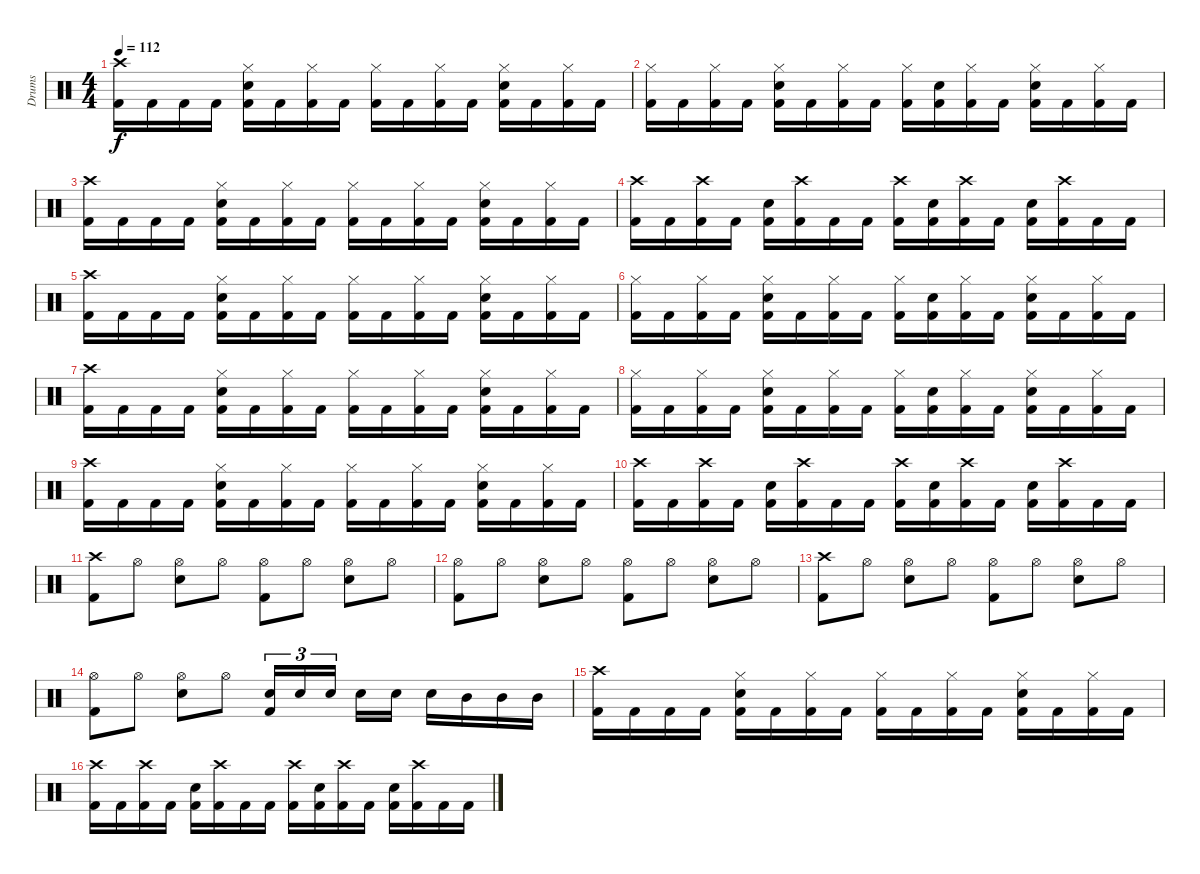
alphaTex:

\track ("Drums" "Drums") {instrument percussion}
\staff {score}
\articulation defaults
\ts (4 4)
\tempo 112
\clef neutral
\ks c
("Crash high (hit)" "Kick (hit) 2").16{dy f} "Kick (hit) 2".16 "Kick (hit) 2".16 "Kick (hit) 2".16 ("Hi-Hat (closed)" "Snare (hit) 2" "Kick (hit) 2").16 "Kick (hit) 2".16 ("Hi-Hat (closed)" "Kick (hit) 2").16 "Kick (hit) 2".16 ("Hi-Hat (closed)" "Kick (hit) 2").16 "Kick (hit) 2".16 ("Hi-Hat (closed)" "Kick (hit) 2").16 "Kick (hit) 2".16 ("Hi-Hat (closed)" "Snare (hit) 2" "Kick (hit) 2").16 "Kick (hit) 2".16 ("Hi-Hat (closed)" "Kick (hit) 2").16 "Kick (hit) 2".16 |
("Hi-Hat (closed)" "Kick (hit) 2").16 "Kick (hit) 2".16 ("Hi-Hat (closed)" "Kick (hit) 2").16 "Kick (hit) 2".16 ("Hi-Hat (closed)" "Snare (hit) 2" "Kick (hit) 2").16 "Kick (hit) 2".16 ("Hi-Hat (closed)" "Kick (hit) 2").16 "Kick (hit) 2".16 ("Hi-Hat (closed)" "Kick (hit) 2").16 ("Snare (hit) 2" "Kick (hit) 2").16 ("Hi-Hat (closed)" "Kick (hit) 2").16 "Kick (hit) 2".16 ("Hi-Hat (closed)" "Snare (hit) 2" "Kick (hit) 2").16 "Kick (hit) 2".16 ("Hi-Hat (closed)" "Kick (hit) 2").16 "Kick (hit) 2".16 |
("Crash high (hit)" "Kick (hit) 2").16 "Kick (hit) 2".16 "Kick (hit) 2".16 "Kick (hit) 2".16 ("Hi-Hat (closed)" "Snare (hit) 2" "Kick (hit) 2").16 "Kick (hit) 2".16 ("Hi-Hat (closed)" "Kick (hit) 2").16 "Kick (hit) 2".16 ("Hi-Hat (closed)" "Kick (hit) 2").16 "Kick (hit) 2".16 ("Hi-Hat (closed)" "Kick (hit) 2").16 "Kick (hit) 2".16 ("Hi-Hat (closed)" "Snare (hit) 2" "Kick (hit) 2").16 "Kick (hit) 2".16 ("Hi-Hat (closed)" "Kick (hit) 2").16 "Kick (hit) 2".16 |
("Crash high (hit)" "Kick (hit) 2").16 "Kick (hit) 2".16 ("Crash high (hit)" "Kick (hit) 2").16 "Kick (hit) 2".16 ("Snare (hit) 2" "Kick (hit) 2").16 ("Crash high (hit)" "Kick (hit) 2").16 "Kick (hit) 2".16 "Kick (hit) 2".16 ("Crash high (hit)" "Kick (hit) 2").16 ("Snare (hit) 2" "Kick (hit) 2").16 ("Crash high (hit)" "Kick (hit) 2").16 "Kick (hit) 2".16 ("Snare (hit) 2" "Kick (hit) 2").16 ("Crash high (hit)" "Kick (hit) 2").16 "Kick (hit) 2".16 "Kick (hit) 2".16 |
("Crash high (hit)" "Kick (hit) 2").16 "Kick (hit) 2".16 "Kick (hit) 2".16 "Kick (hit) 2".16 ("Hi-Hat (closed)" "Snare (hit) 2" "Kick (hit) 2").16 "Kick (hit) 2".16 ("Hi-Hat (closed)" "Kick (hit) 2").16 "Kick (hit) 2".16 ("Hi-Hat (closed)" "Kick (hit) 2").16 "Kick (hit) 2".16 ("Hi-Hat (closed)" "Kick (hit) 2").16 "Kick (hit) 2".16 ("Hi-Hat (closed)" "Snare (hit) 2" "Kick (hit) 2").16 "Kick (hit) 2".16 ("Hi-Hat (closed)" "Kick (hit) 2").16 "Kick (hit) 2".16 |
("Hi-Hat (closed)" "Kick (hit) 2").16 "Kick (hit) 2".16 ("Hi-Hat (closed)" "Kick (hit) 2").16 "Kick (hit) 2".16 ("Hi-Hat (closed)" "Snare (hit) 2" "Kick (hit) 2").16 "Kick (hit) 2".16 ("Hi-Hat (closed)" "Kick (hit) 2").16 "Kick (hit) 2".16 ("Hi-Hat (closed)" "Kick (hit) 2").16 ("Snare (hit) 2" "Kick (hit) 2").16 ("Hi-Hat (closed)" "Kick (hit) 2").16 "Kick (hit) 2".16 ("Hi-Hat (closed)" "Snare (hit) 2" "Kick (hit) 2").16 "Kick (hit) 2".16 ("Hi-Hat (closed)" "Kick (hit) 2").16 "Kick (hit) 2".16 |
("Crash high (hit)" "Kick (hit) 2").16 "Kick (hit) 2".16 "Kick (hit) 2".16 "Kick (hit) 2".16 ("Hi-Hat (closed)" "Snare (hit) 2" "Kick (hit) 2").16 "Kick (hit) 2".16 ("Hi-Hat (closed)" "Kick (hit) 2").16 "Kick (hit) 2".16 ("Hi-Hat (closed)" "Kick (hit) 2").16 "Kick (hit) 2".16 ("Hi-Hat (closed)" "Kick (hit) 2").16 "Kick (hit) 2".16 ("Hi-Hat (closed)" "Snare (hit) 2" "Kick (hit) 2").16 "Kick (hit) 2".16 ("Hi-Hat (closed)" "Kick (hit) 2").16 "Kick (hit) 2".16 |
("Hi-Hat (closed)" "Kick (hit) 2").16 "Kick (hit) 2".16 ("Hi-Hat (closed)" "Kick (hit) 2").16 "Kick (hit) 2".16 ("Hi-Hat (closed)" "Snare (hit) 2" "Kick (hit) 2").16 "Kick (hit) 2".16 ("Hi-Hat (closed)" "Kick (hit) 2").16 "Kick (hit) 2".16 ("Hi-Hat (closed)" "Kick (hit) 2").16 ("Snare (hit) 2" "Kick (hit) 2").16 ("Hi-Hat (closed)" "Kick (hit) 2").16 "Kick (hit) 2".16 ("Hi-Hat (closed)" "Snare (hit) 2" "Kick (hit) 2").16 "Kick (hit) 2".16 ("Hi-Hat (closed)" "Kick (hit) 2").16 "Kick (hit) 2".16 |
("Crash high (hit)" "Kick (hit) 2").16 "Kick (hit) 2".16 "Kick (hit) 2".16 "Kick (hit) 2".16 ("Hi-Hat (closed)" "Snare (hit) 2" "Kick (hit) 2").16 "Kick (hit) 2".16 ("Hi-Hat (closed)" "Kick (hit) 2").16 "Kick (hit) 2".16 ("Hi-Hat (closed)" "Kick (hit) 2").16 "Kick (hit) 2".16 ("Hi-Hat (closed)" "Kick (hit) 2").16 "Kick (hit) 2".16 ("Hi-Hat (closed)" "Snare (hit) 2" "Kick (hit) 2").16 "Kick (hit) 2".16 ("Hi-Hat (closed)" "Kick (hit) 2").16 "Kick (hit) 2".16 |
("Crash high (hit)" "Kick (hit) 2").16 "Kick (hit) 2".16 ("Crash high (hit)" "Kick (hit) 2").16 "Kick (hit) 2".16 ("Snare (hit) 2" "Kick (hit) 2").16 ("Crash high (hit)" "Kick (hit) 2").16 "Kick (hit) 2".16 "Kick (hit) 2".16 ("Crash high (hit)" "Kick (hit) 2").16 ("Snare (hit) 2" "Kick (hit) 2").16 ("Crash high (hit)" "Kick (hit) 2").16 "Kick (hit) 2".16 ("Snare (hit) 2" "Kick (hit) 2").16 ("Crash high (hit)" "Kick (hit) 2").16 "Kick (hit) 2".16 "Kick (hit) 2".16 |
("Crash high (hit)" "Kick (hit) 2").8 "Hi-Hat (open)".8 ("Hi-Hat (open)" "Snare (hit) 2").8 "Hi-Hat (open)".8 ("Hi-Hat (open)" "Kick (hit) 2").8 "Hi-Hat (open)".8 ("Hi-Hat (open)" "Snare (hit) 2").8 "Hi-Hat (open)".8 |
("Hi-Hat (open)" "Kick (hit) 2").8 "Hi-Hat (open)".8 ("Hi-Hat (open)" "Snare (hit) 2").8 "Hi-Hat (open)".8 ("Hi-Hat (open)" "Kick (hit) 2").8 "Hi-Hat (open)".8 ("Hi-Hat (open)" "Snare (hit) 2").8 "Hi-Hat (open)".8 |
("Crash high (hit)" "Kick (hit) 2").8 "Hi-Hat (open)".8 ("Hi-Hat (open)" "Snare (hit) 2").8 "Hi-Hat (open)".8 ("Hi-Hat (open)" "Kick (hit) 2").8 "Hi-Hat (open)".8 ("Hi-Hat (open)" "Snare (hit) 2").8 "Hi-Hat (open)".8 |
("Hi-Hat (open)" "Kick (hit) 2").8 "Hi-Hat (open)".8 ("Hi-Hat (open)" "Snare (hit) 2").8 "Hi-Hat (open)".8 ("Snare (hit) 2" "Kick (hit) 2").16{tu (3 2)} "Snare (hit) 2".16{tu (3 2)} "Snare (hit) 2".16{tu (3 2)} "Snare (hit) 2".16 "Snare (hit) 2".16 "Snare (hit) 2".16 "Mid Tom (hit)".16 "Mid Tom (hit)".16 "Mid Tom (hit)".16 |
("Crash high (hit)" "Kick (hit) 2").16 "Kick (hit) 2".16 "Kick (hit) 2".16 "Kick (hit) 2".16 ("Hi-Hat (closed)" "Snare (hit) 2" "Kick (hit) 2").16 "Kick (hit) 2".16 ("Hi-Hat (closed)" "Kick (hit) 2").16 "Kick (hit) 2".16 ("Hi-Hat (closed)" "Kick (hit) 2").16 "Kick (hit) 2".16 ("Hi-Hat (closed)" "Kick (hit) 2").16 "Kick (hit) 2".16 ("Hi-Hat (closed)" "Snare (hit) 2" "Kick (hit) 2").16 "Kick (hit) 2".16 ("Hi-Hat (closed)" "Kick (hit) 2").16 "Kick (hit) 2".16 |
("Crash high (hit)" "Kick (hit) 2").16 "Kick (hit) 2".16 ("Crash high (hit)" "Kick (hit) 2").16 "Kick (hit) 2".16 ("Snare (hit) 2" "Kick (hit) 2").16 ("Crash high (hit)" "Kick (hit) 2").16 "Kick (hit) 2".16 "Kick (hit) 2".16 ("Crash high (hit)" "Kick (hit) 2").16 ("Snare (hit) 2" "Kick (hit) 2").16 ("Crash high (hit)" "Kick (hit) 2").16 "Kick (hit) 2".16 ("Snare (hit) 2" "Kick (hit) 2").16 ("Crash high (hit)" "Kick (hit) 2").16 "Kick (hit) 2".16 "Kick (hit) 2".16
